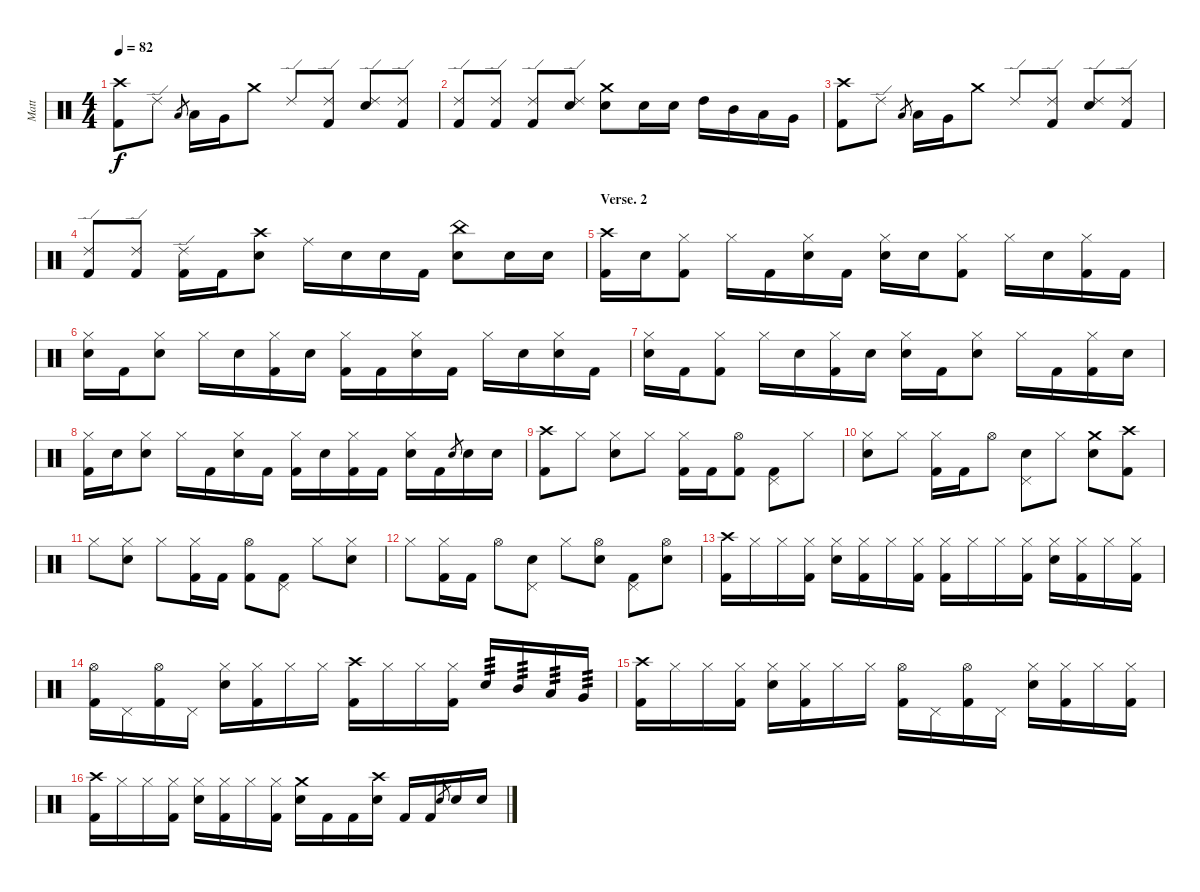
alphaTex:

\track ("Matt" "Matt") {instrument percussion}
\staff {score}
\articulation defaults
\ts (4 4)
\tempo 82
\clef neutral
\ks c
("Crash high (hit)" "Kick (hit) 2").8{dy f} "Ride (edge) 2".8 "Low Tom (hit)".8{gr} "Low Tom (hit)".16 "Very Low Tom (hit)".16 "Crash medium (hit)".8 "Ride (edge) 2".8 ("Ride (edge) 2" "Kick (hit) 2").8 ("Ride (edge) 2" "Electric Snare (hit)").8 ("Ride (edge) 2" "Kick (hit) 2").8 |
("Ride (edge) 2" "Kick (hit) 2").8 ("Ride (edge) 2" "Kick (hit) 2").8 ("Ride (edge) 2" "Kick (hit) 2").8 ("Ride (edge) 2" "Electric Snare (hit)").8 ("Crash medium (hit)" "Electric Snare (hit)").8 "Electric Snare (hit)".16 "Electric Snare (hit)".16 "High Tom (hit)".16 "Mid Tom (hit)".16 "Low Tom (hit)".16 "Very Low Tom (hit)".16 |
("Crash high (hit)" "Kick (hit) 2").8 "Ride (edge) 2".8 "Low Tom (hit)".8{gr} "Low Tom (hit)".16 "Very Low Tom (hit)".16 "Crash medium (hit)".8 "Ride (edge) 2".8 ("Ride (edge) 2" "Kick (hit) 2").8 ("Ride (edge) 2" "Electric Snare (hit)").8 ("Ride (edge) 2" "Kick (hit) 2").8 |
("Ride (edge) 2" "Kick (hit) 2").8 ("Ride (edge) 2" "Kick (hit) 2").8 ("Ride (edge) 2" "Kick (hit) 2").16 "Kick (hit) 2".16 ("Crash high (hit)" "Electric Snare (hit)").8 "Ride (middle)".16 "Electric Snare (hit)".16 "Electric Snare (hit)".16 "Kick (hit) 2".16 ("China (hit)" "Electric Snare (hit)").8 "Electric Snare (hit)".16 "Electric Snare (hit)".16 |
\section ("" "Verse. 2")
("Crash high (hit)" "Kick (hit) 2").16 "Electric Snare (hit)".16 ("Hi-Hat (closed)" "Kick (hit) 2").8 "Hi-Hat (closed)".16 "Kick (hit) 2".16 ("Hi-Hat (closed)" "Electric Snare (hit)").16 "Kick (hit) 2".16 ("Hi-Hat (closed)" "Electric Snare (hit)").16 "Electric Snare (hit)".16 ("Hi-Hat (closed)" "Kick (hit) 2").8 "Hi-Hat (closed)".16 "Electric Snare (hit)".16 ("Hi-Hat (closed)" "Kick (hit) 2").16 "Kick (hit) 2".16 |
("Hi-Hat (closed)" "Electric Snare (hit)").16 "Kick (hit) 2".16 ("Hi-Hat (closed)" "Electric Snare (hit)").8 "Hi-Hat (closed)".16 "Electric Snare (hit)".16 ("Hi-Hat (closed)" "Kick (hit) 2").16 "Electric Snare (hit)".16 ("Hi-Hat (closed)" "Kick (hit) 2").16 "Kick (hit) 2".16 ("Hi-Hat (closed)" "Electric Snare (hit)").16 "Kick (hit) 2".16 "Hi-Hat (closed)".16 "Electric Snare (hit)".16 ("Hi-Hat (closed)" "Electric Snare (hit)").16 "Kick (hit) 2".16 |
("Hi-Hat (closed)" "Electric Snare (hit)").16 "Kick (hit) 2".16 ("Hi-Hat (closed)" "Kick (hit) 2").8 "Hi-Hat (closed)".16 "Electric Snare (hit)".16 ("Hi-Hat (closed)" "Kick (hit) 2").16 "Electric Snare (hit)".16 ("Hi-Hat (closed)" "Electric Snare (hit)").16 "Kick (hit) 2".16 ("Hi-Hat (closed)" "Electric Snare (hit)").8 "Hi-Hat (closed)".16 "Kick (hit) 2".16 ("Hi-Hat (closed)" "Kick (hit) 2").16 "Electric Snare (hit)".16 |
("Hi-Hat (closed)" "Kick (hit) 2").16 "Electric Snare (hit)".16 ("Hi-Hat (closed)" "Electric Snare (hit)").8 "Hi-Hat (closed)".16 "Kick (hit) 2".16 ("Hi-Hat (closed)" "Electric Snare (hit)").16 "Kick (hit) 2".16 ("Hi-Hat (closed)" "Kick (hit) 2").16 "Electric Snare (hit)".16 ("Hi-Hat (closed)" "Kick (hit) 2").16 "Kick (hit) 2".16 ("Hi-Hat (closed)" "Electric Snare (hit)").16 "Kick (hit) 2".16 "Electric Snare (hit)".8{gr} "Electric Snare (hit)".16 "Electric Snare (hit)".16 |
("Crash high (hit)" "Kick (hit) 2").8 "Hi-Hat (closed)".8 ("Hi-Hat (closed)" "Electric Snare (hit)").8 "Hi-Hat (closed)".8 ("Hi-Hat (closed)" "Kick (hit) 2").16 "Kick (hit) 2".16 ("Hi-Hat (open)" "Kick (hit) 2").8 ("Pedal Hi-Hat (hit)" "Kick (hit) 2").8 "Hi-Hat (closed)".8 |
("Hi-Hat (closed)" "Electric Snare (hit)").8 "Hi-Hat (closed)".8 ("Hi-Hat (closed)" "Kick (hit) 2").16 "Kick (hit) 2".16 "Hi-Hat (open)".8 ("Pedal Hi-Hat (hit)" "Electric Snare (hit)").8 "Hi-Hat (closed)".8 ("Crash medium (hit)" "Electric Snare (hit)").8 ("Crash high (hit)" "Kick (hit) 2").8 |
"Hi-Hat (closed)".8 ("Hi-Hat (closed)" "Electric Snare (hit)").8 "Hi-Hat (closed)".8 ("Hi-Hat (closed)" "Kick (hit) 2").16 "Kick (hit) 2".16 ("Hi-Hat (open)" "Kick (hit) 2").8 ("Pedal Hi-Hat (hit)" "Kick (hit) 2").8 "Hi-Hat (closed)".8 ("Hi-Hat (closed)" "Electric Snare (hit)").8 |
"Hi-Hat (closed)".8 ("Hi-Hat (closed)" "Kick (hit) 2").16 "Kick (hit) 2".16 "Hi-Hat (open)".8 ("Pedal Hi-Hat (hit)" "Electric Snare (hit)").8 "Hi-Hat (closed)".8 ("Hi-Hat (open)" "Electric Snare (hit)").8 ("Pedal Hi-Hat (hit)" "Kick (hit) 2").8 ("Hi-Hat (open)" "Electric Snare (hit)").8 |
("Crash high (hit)" "Kick (hit) 2").16 "Hi-Hat (closed)".16 "Hi-Hat (closed)".16 ("Hi-Hat (closed)" "Kick (hit) 2").16 ("Hi-Hat (closed)" "Electric Snare (hit)").16 ("Hi-Hat (closed)" "Kick (hit) 2").16 "Hi-Hat (closed)".16 ("Hi-Hat (closed)" "Kick (hit) 2").16 ("Hi-Hat (closed)" "Kick (hit) 2").16 "Hi-Hat (closed)".16 "Hi-Hat (closed)".16 ("Hi-Hat (closed)" "Kick (hit) 2").16 ("Hi-Hat (closed)" "Electric Snare (hit)").16 ("Hi-Hat (closed)" "Kick (hit) 2").16 "Hi-Hat (closed)".16 ("Hi-Hat (closed)" "Kick (hit) 2").16 |
("Hi-Hat (open)" "Kick (hit) 2").16 "Pedal Hi-Hat (hit)".16 ("Hi-Hat (open)" "Kick (hit) 2").16 "Pedal Hi-Hat (hit)".16 ("Hi-Hat (closed)" "Electric Snare (hit)").16 ("Hi-Hat (closed)" "Kick (hit) 2").16 "Hi-Hat (closed)".16 "Hi-Hat (closed)".16 ("Crash high (hit)" "Kick (hit) 2").16 "Hi-Hat (closed)".16 "Hi-Hat (closed)".16 ("Hi-Hat (closed)" "Kick (hit) 2").16 "Electric Snare (hit)".16{tp 3} "Mid Tom (hit)".16{tp 3} "Low Tom (hit)".16{tp 3} "Very Low Tom (hit)".16{tp 3} |
("Crash high (hit)" "Kick (hit) 2").16 "Hi-Hat (closed)".16 "Hi-Hat (closed)".16 ("Hi-Hat (closed)" "Kick (hit) 2").16 ("Hi-Hat (closed)" "Electric Snare (hit)").16 ("Hi-Hat (closed)" "Kick (hit) 2").16 "Hi-Hat (closed)".16 "Hi-Hat (closed)".16 ("Hi-Hat (open)" "Kick (hit) 2").16 "Pedal Hi-Hat (hit)".16 ("Hi-Hat (open)" "Kick (hit) 2").16 "Pedal Hi-Hat (hit)".16 ("Hi-Hat (closed)" "Electric Snare (hit)").16 ("Hi-Hat (closed)" "Kick (hit) 2").16 "Hi-Hat (closed)".16 ("Hi-Hat (closed)" "Kick (hit) 2").16 |
("Crash high (hit)" "Kick (hit) 2").16 "Hi-Hat (closed)".16 "Hi-Hat (closed)".16 ("Hi-Hat (closed)" "Kick (hit) 2").16 ("Hi-Hat (closed)" "Electric Snare (hit)").16 ("Hi-Hat (closed)" "Kick (hit) 2").16 "Hi-Hat (closed)".16 ("Hi-Hat (closed)" "Kick (hit) 2").16 ("Crash medium (hit)" "Electric Snare (hit)").16 "Kick (hit) 2".16 "Kick (hit) 2".16 ("Crash high (hit)" "Electric Snare (hit)").16 "Kick (hit) 2".16 "Kick (hit) 2".16 "Electric Snare (hit)".8{gr} "Electric Snare (hit)".16 "Electric Snare (hit)".16
